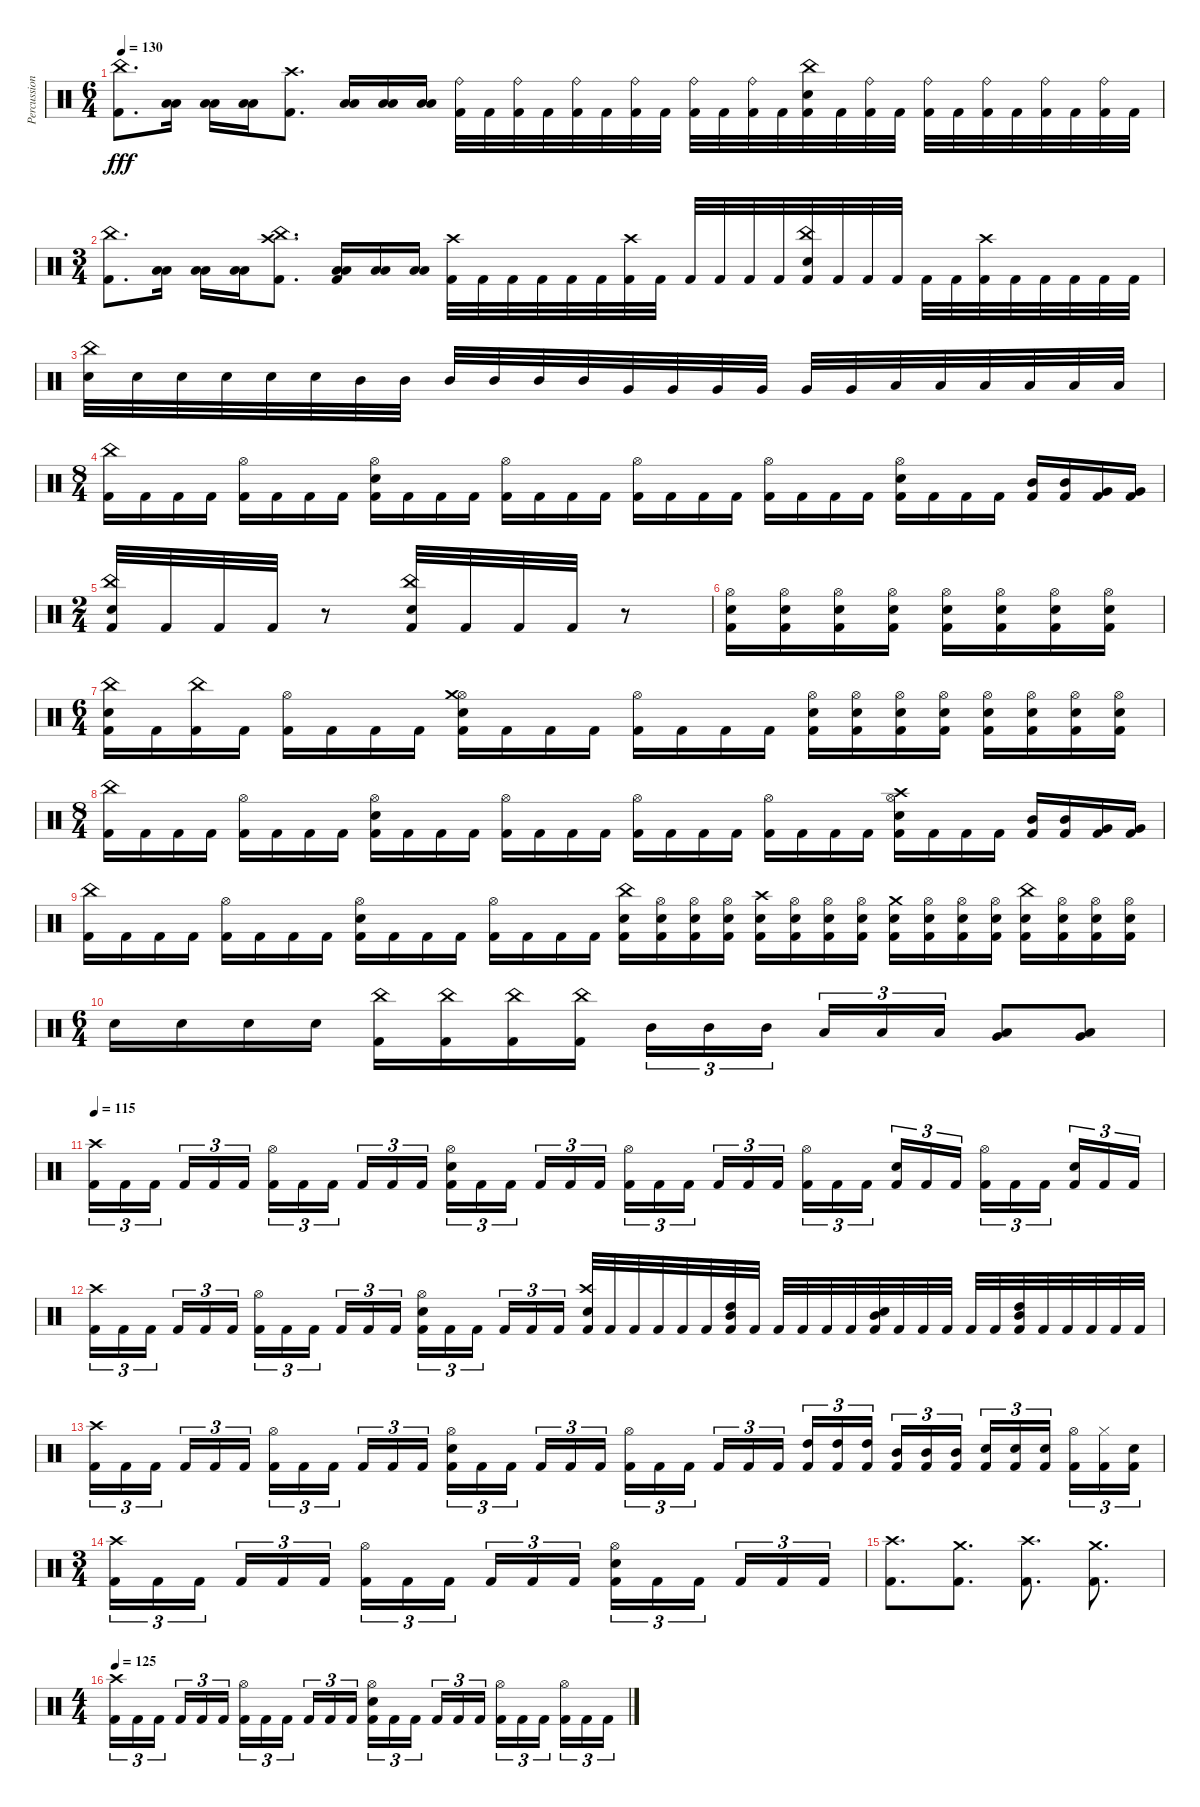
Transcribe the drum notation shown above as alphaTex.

\track ("Percussion" "Percussion") {instrument percussion}
\staff {score}
\articulation defaults
\ts (6 4)
\tempo 130
\clef neutral
\ks c
("Kick (hit) 2" "China (hit)").8{d dy fff} ("Low Tom (hit)" "Low Tom (hit)").16 ("Low Tom (hit)" "Low Tom (hit)").16 ("Low Tom (hit)" "Low Tom (hit)").16 ("Crash high (hit)" "Kick (hit) 2").8{d} ("Low Tom (hit)" "Low Tom (hit)").16 ("Low Floor Tom (hit)" "Low Floor Tom (hit)").16 ("Low Floor Tom (hit)" "Low Floor Tom (hit)").16 ("Kick (hit) 2" "Ride (bell)").32 "Kick (hit) 2".32 ("Kick (hit) 2" "Ride (bell)").32 "Kick (hit) 2".32 ("Kick (hit) 2" "Ride (bell)").32 "Kick (hit) 2".32 ("Kick (hit) 2" "Ride (bell)").32 "Kick (hit) 2".32 ("Kick (hit) 2" "Ride (bell)").32 "Kick (hit) 2".32 ("Kick (hit) 2" "Ride (bell)").32 "Kick (hit) 2".32 ("Kick (hit) 2" "Electric Snare (hit)" "China (hit)").32 "Kick (hit) 2".32 ("Kick (hit) 2" "Ride (bell)").32 "Kick (hit) 2".32 ("Kick (hit) 2" "Ride (bell)").32 "Kick (hit) 2".32 ("Kick (hit) 2" "Ride (bell)").32 "Kick (hit) 2".32 ("Kick (hit) 2" "Ride (bell)").32 "Kick (hit) 2".32 ("Kick (hit) 2" "Ride (bell)").32 "Kick (hit) 2".32 |
\ts (3 4)
("Kick (hit) 2" "China (hit)").8{d} ("Low Tom (hit)" "Low Tom (hit)").16 ("Low Tom (hit)" "Low Tom (hit)").16 ("Low Tom (hit)" "Low Tom (hit)").16 ("Kick (hit) 2" "China (hit)" "Crash high (hit)").8{d} ("Kick (hit) 2" "Low Tom (hit)" "Low Tom (hit)").16 ("Low Tom (hit)" "Low Tom (hit)").16 ("Low Floor Tom (hit)" "Low Floor Tom (hit)").16 ("Kick (hit) 2" "Crash high (hit)").32 "Kick (hit) 2".32 "Kick (hit) 2".32 "Kick (hit) 2".32 "Kick (hit) 2".32 "Kick (hit) 2".32 ("Kick (hit) 2" "Crash high (hit)").32 "Kick (hit) 2".32 "Kick (hit) 2".32 "Kick (hit) 2".32 "Kick (hit) 2".32 "Kick (hit) 2".32 ("Kick (hit) 2" "China (hit)" "Electric Snare (hit)").32 "Kick (hit) 2".32 "Kick (hit) 2".32 "Kick (hit) 2".32 "Kick (hit) 2".32 "Kick (hit) 2".32 ("Kick (hit) 2" "Crash high (hit)").32 "Kick (hit) 2".32 "Kick (hit) 2".32 "Kick (hit) 2".32 "Kick (hit) 2".32 "Kick (hit) 2".32 |
("Electric Snare (hit)" "China (hit)").32 "Electric Snare (hit)".32 "Electric Snare (hit)".32 "Electric Snare (hit)".32 "Electric Snare (hit)".32 "Electric Snare (hit)".32 "Mid Tom (hit)".32 "Mid Tom (hit)".32 "Mid Tom (hit)".32 "Mid Tom (hit)".32 "Mid Tom (hit)".32 "Mid Tom (hit)".32 "Very Low Tom (hit)".32 "Very Low Tom (hit)".32 "Very Low Tom (hit)".32 "Very Low Tom (hit)".32 "Very Low Tom (hit)".32 "Very Low Tom (hit)".32 "Low Floor Tom (hit)".32 "Low Floor Tom (hit)".32 "Low Floor Tom (hit)".32 "Low Floor Tom (hit)".32 "Low Floor Tom (hit)".32 "Low Floor Tom (hit)".32 |
\ts (8 4)
("Kick (hit) 2" "China (hit)").16 "Kick (hit) 2".16 "Kick (hit) 2".16 "Kick (hit) 2".16 ("Kick (hit) 2" "Hi-Hat (open)").16 "Kick (hit) 2".16 "Kick (hit) 2".16 "Kick (hit) 2".16 ("Kick (hit) 2" "Hi-Hat (open)" "Electric Snare (hit)").16 "Kick (hit) 2".16 "Kick (hit) 2".16 "Kick (hit) 2".16 ("Kick (hit) 2" "Hi-Hat (open)").16 "Kick (hit) 2".16 "Kick (hit) 2".16 "Kick (hit) 2".16 ("Kick (hit) 2" "Hi-Hat (open)").16 "Kick (hit) 2".16 "Kick (hit) 2".16 "Kick (hit) 2".16 ("Kick (hit) 2" "Hi-Hat (open)").16 "Kick (hit) 2".16 "Kick (hit) 2".16 "Kick (hit) 2".16 ("Kick (hit) 2" "Hi-Hat (open)" "Electric Snare (hit)").16 "Kick (hit) 2".16 "Kick (hit) 2".16 "Kick (hit) 2".16 ("Kick (hit) 2" "Mid Tom (hit)").16 ("Kick (hit) 2" "Mid Tom (hit)").16 ("Kick (hit) 2" "Very Low Tom (hit)").16 ("Kick (hit) 2" "Very Low Tom (hit)").16 |
\ts (2 4)
("Kick (hit) 2" "Electric Snare (hit)" "China (hit)").32 "Kick (hit) 2".32 "Kick (hit) 2".32 "Kick (hit) 2".32 r.8 ("Kick (hit) 2" "Electric Snare (hit)" "China (hit)").32 "Kick (hit) 2".32 "Kick (hit) 2".32 "Kick (hit) 2".32 r.8 |
("Kick (hit) 2" "Hi-Hat (open)" "Electric Snare (hit)").16 ("Kick (hit) 2" "Hi-Hat (open)" "Electric Snare (hit)").16 ("Kick (hit) 2" "Hi-Hat (open)" "Electric Snare (hit)").16 ("Kick (hit) 2" "Hi-Hat (open)" "Electric Snare (hit)").16 ("Kick (hit) 2" "Hi-Hat (open)" "Electric Snare (hit)").16 ("Kick (hit) 2" "Hi-Hat (open)" "Electric Snare (hit)").16 ("Kick (hit) 2" "Hi-Hat (open)" "Electric Snare (hit)").16 ("Kick (hit) 2" "Hi-Hat (open)" "Electric Snare (hit)").16 |
\ts (6 4)
("Kick (hit) 2" "China (hit)" "Electric Snare (hit)").16 "Kick (hit) 2".16 ("Kick (hit) 2" "China (hit)").16 "Kick (hit) 2".16 ("Kick (hit) 2" "Hi-Hat (open)").16 "Kick (hit) 2".16 "Kick (hit) 2".16 "Kick (hit) 2".16 ("Kick (hit) 2" "Hi-Hat (open)" "Electric Snare (hit)" "Crash medium (hit)").16 "Kick (hit) 2".16 "Kick (hit) 2".16 "Kick (hit) 2".16 ("Kick (hit) 2" "Hi-Hat (open)").16 "Kick (hit) 2".16 "Kick (hit) 2".16 "Kick (hit) 2".16 ("Kick (hit) 2" "Hi-Hat (open)" "Electric Snare (hit)").16 ("Kick (hit) 2" "Hi-Hat (open)" "Electric Snare (hit)").16 ("Kick (hit) 2" "Hi-Hat (open)" "Electric Snare (hit)").16 ("Kick (hit) 2" "Hi-Hat (open)" "Electric Snare (hit)").16 ("Kick (hit) 2" "Hi-Hat (open)" "Electric Snare (hit)").16 ("Kick (hit) 2" "Hi-Hat (open)" "Electric Snare (hit)").16 ("Kick (hit) 2" "Hi-Hat (open)" "Electric Snare (hit)").16 ("Kick (hit) 2" "Hi-Hat (open)" "Electric Snare (hit)").16 |
\ts (8 4)
("Kick (hit) 2" "China (hit)").16 "Kick (hit) 2".16 "Kick (hit) 2".16 "Kick (hit) 2".16 ("Kick (hit) 2" "Hi-Hat (open)").16 "Kick (hit) 2".16 "Kick (hit) 2".16 "Kick (hit) 2".16 ("Kick (hit) 2" "Hi-Hat (open)" "Electric Snare (hit)").16 "Kick (hit) 2".16 "Kick (hit) 2".16 "Kick (hit) 2".16 ("Kick (hit) 2" "Hi-Hat (open)").16 "Kick (hit) 2".16 "Kick (hit) 2".16 "Kick (hit) 2".16 ("Kick (hit) 2" "Hi-Hat (open)").16 "Kick (hit) 2".16 "Kick (hit) 2".16 "Kick (hit) 2".16 ("Kick (hit) 2" "Hi-Hat (open)").16 "Kick (hit) 2".16 "Kick (hit) 2".16 "Kick (hit) 2".16 ("Kick (hit) 2" "Hi-Hat (open)" "Electric Snare (hit)" "Crash high (hit)").16 "Kick (hit) 2".16 "Kick (hit) 2".16 "Kick (hit) 2".16 ("Kick (hit) 2" "Mid Tom (hit)").16 ("Kick (hit) 2" "Mid Tom (hit)").16 ("Kick (hit) 2" "Very Low Tom (hit)").16 ("Kick (hit) 2" "Very Low Tom (hit)").16 |
("Kick (hit) 2" "China (hit)").16 "Kick (hit) 2".16 "Kick (hit) 2".16 "Kick (hit) 2".16 ("Kick (hit) 2" "Hi-Hat (open)").16 "Kick (hit) 2".16 "Kick (hit) 2".16 "Kick (hit) 2".16 ("Kick (hit) 2" "Hi-Hat (open)" "Electric Snare (hit)").16 "Kick (hit) 2".16 "Kick (hit) 2".16 "Kick (hit) 2".16 ("Kick (hit) 2" "Hi-Hat (open)").16 "Kick (hit) 2".16 "Kick (hit) 2".16 "Kick (hit) 2".16 ("Kick (hit) 2" "China (hit)" "Electric Snare (hit)").16 ("Kick (hit) 2" "Hi-Hat (open)" "Electric Snare (hit)").16 ("Kick (hit) 2" "Hi-Hat (open)" "Electric Snare (hit)").16 ("Kick (hit) 2" "Hi-Hat (open)" "Electric Snare (hit)").16 ("Kick (hit) 2" "Crash high (hit)" "Electric Snare (hit)").16 ("Kick (hit) 2" "Hi-Hat (open)" "Electric Snare (hit)").16 ("Kick (hit) 2" "Hi-Hat (open)" "Electric Snare (hit)").16 ("Kick (hit) 2" "Hi-Hat (open)" "Electric Snare (hit)").16 ("Kick (hit) 2" "Crash medium (hit)" "Electric Snare (hit)").16 ("Kick (hit) 2" "Hi-Hat (open)" "Electric Snare (hit)").16 ("Kick (hit) 2" "Hi-Hat (open)" "Electric Snare (hit)").16 ("Kick (hit) 2" "Hi-Hat (open)" "Electric Snare (hit)").16 ("Kick (hit) 2" "China (hit)" "Electric Snare (hit)").16 ("Kick (hit) 2" "Hi-Hat (open)" "Electric Snare (hit)").16 ("Kick (hit) 2" "Hi-Hat (open)" "Electric Snare (hit)").16 ("Kick (hit) 2" "Hi-Hat (open)" "Electric Snare (hit)").16 |
\ts (6 4)
"Electric Snare (hit)".16 "Electric Snare (hit)".16 "Electric Snare (hit)".16 "Electric Snare (hit)".16 ("Kick (hit) 2" "China (hit)").16 ("Kick (hit) 2" "China (hit)").16 ("Kick (hit) 2" "China (hit)").16 ("Kick (hit) 2" "China (hit)").16{beam splitsecondary} "Mid Tom (hit)".16{tu (3 2)} "Mid Tom (hit)".16{tu (3 2)} "Mid Tom (hit)".16{tu (3 2) beam splitsecondary} "Low Tom (hit)".16{tu (3 2)} "Low Tom (hit)".16{tu (3 2)} "Low Tom (hit)".16{tu (3 2)} ("Low Tom (hit)" "Very Low Tom (hit)").8 ("Low Tom (hit)" "Very Low Tom (hit)").8 |
\tempo 115
("Kick (hit) 2" "Crash high (hit)").16{tu (3 2)} "Kick (hit) 2".16{tu (3 2)} "Kick (hit) 2".16{tu (3 2) beam splitsecondary} "Kick (hit) 2".16{tu (3 2)} "Kick (hit) 2".16{tu (3 2)} "Kick (hit) 2".16{tu (3 2) beam splitsecondary} ("Kick (hit) 2" "Hi-Hat (open)").16{tu (3 2)} "Kick (hit) 2".16{tu (3 2)} "Kick (hit) 2".16{tu (3 2) beam splitsecondary} "Kick (hit) 2".16{tu (3 2)} "Kick (hit) 2".16{tu (3 2)} "Kick (hit) 2".16{tu (3 2) beam splitsecondary} ("Kick (hit) 2" "Hi-Hat (open)" "Electric Snare (hit)").16{tu (3 2)} "Kick (hit) 2".16{tu (3 2)} "Kick (hit) 2".16{tu (3 2) beam splitsecondary} "Kick (hit) 2".16{tu (3 2)} "Kick (hit) 2".16{tu (3 2)} "Kick (hit) 2".16{tu (3 2)} ("Kick (hit) 2" "Hi-Hat (open)").16{tu (3 2)} "Kick (hit) 2".16{tu (3 2)} "Kick (hit) 2".16{tu (3 2) beam splitsecondary} "Kick (hit) 2".16{tu (3 2)} "Kick (hit) 2".16{tu (3 2)} "Kick (hit) 2".16{tu (3 2) beam splitsecondary} ("Kick (hit) 2" "Hi-Hat (open)").16{tu (3 2)} "Kick (hit) 2".16{tu (3 2)} "Kick (hit) 2".16{tu (3 2) beam splitsecondary} ("Kick (hit) 2" "Electric Snare (hit)").16{tu (3 2)} "Kick (hit) 2".16{tu (3 2)} "Kick (hit) 2".16{tu (3 2) beam splitsecondary} ("Kick (hit) 2" "Hi-Hat (open)").16{tu (3 2)} "Kick (hit) 2".16{tu (3 2)} "Kick (hit) 2".16{tu (3 2) beam splitsecondary} ("Kick (hit) 2" "Electric Snare (hit)").16{tu (3 2)} "Kick (hit) 2".16{tu (3 2)} "Kick (hit) 2".16{tu (3 2)} |
("Kick (hit) 2" "Crash high (hit)").16{tu (3 2)} "Kick (hit) 2".16{tu (3 2)} "Kick (hit) 2".16{tu (3 2) beam splitsecondary} "Kick (hit) 2".16{tu (3 2)} "Kick (hit) 2".16{tu (3 2)} "Kick (hit) 2".16{tu (3 2) beam splitsecondary} ("Kick (hit) 2" "Hi-Hat (open)").16{tu (3 2)} "Kick (hit) 2".16{tu (3 2)} "Kick (hit) 2".16{tu (3 2) beam splitsecondary} "Kick (hit) 2".16{tu (3 2)} "Kick (hit) 2".16{tu (3 2)} "Kick (hit) 2".16{tu (3 2) beam splitsecondary} ("Kick (hit) 2" "Hi-Hat (open)" "Electric Snare (hit)").16{tu (3 2)} "Kick (hit) 2".16{tu (3 2)} "Kick (hit) 2".16{tu (3 2) beam splitsecondary} "Kick (hit) 2".16{tu (3 2)} "Kick (hit) 2".16{tu (3 2)} "Kick (hit) 2".16{tu (3 2)} ("Kick (hit) 2" "Electric Snare (hit)" "Crash high (hit)").32 "Kick (hit) 2".32 "Kick (hit) 2".32 "Kick (hit) 2".32 "Kick (hit) 2".32 "Kick (hit) 2".32 ("Kick (hit) 2" "Mid Tom (hit)" "High Tom (hit)").32 "Kick (hit) 2".32 "Kick (hit) 2".32 "Kick (hit) 2".32 "Kick (hit) 2".32 "Kick (hit) 2".32 ("Kick (hit) 2" "Electric Snare (hit)" "Mid Tom (hit)").32 "Kick (hit) 2".32 "Kick (hit) 2".32 "Kick (hit) 2".32 "Kick (hit) 2".32 "Kick (hit) 2".32 ("Kick (hit) 2" "Mid Tom (hit)" "High Tom (hit)").32 "Kick (hit) 2".32 "Kick (hit) 2".32 "Kick (hit) 2".32 "Kick (hit) 2".32 "Kick (hit) 2".32 |
("Kick (hit) 2" "Crash high (hit)").16{tu (3 2)} "Kick (hit) 2".16{tu (3 2)} "Kick (hit) 2".16{tu (3 2) beam splitsecondary} "Kick (hit) 2".16{tu (3 2)} "Kick (hit) 2".16{tu (3 2)} "Kick (hit) 2".16{tu (3 2) beam splitsecondary} ("Kick (hit) 2" "Hi-Hat (open)").16{tu (3 2)} "Kick (hit) 2".16{tu (3 2)} "Kick (hit) 2".16{tu (3 2) beam splitsecondary} "Kick (hit) 2".16{tu (3 2)} "Kick (hit) 2".16{tu (3 2)} "Kick (hit) 2".16{tu (3 2) beam splitsecondary} ("Kick (hit) 2" "Hi-Hat (open)" "Electric Snare (hit)").16{tu (3 2)} "Kick (hit) 2".16{tu (3 2)} "Kick (hit) 2".16{tu (3 2) beam splitsecondary} "Kick (hit) 2".16{tu (3 2)} "Kick (hit) 2".16{tu (3 2)} "Kick (hit) 2".16{tu (3 2)} ("Kick (hit) 2" "Hi-Hat (open)").16{tu (3 2)} "Kick (hit) 2".16{tu (3 2)} "Kick (hit) 2".16{tu (3 2) beam splitsecondary} "Kick (hit) 2".16{tu (3 2)} "Kick (hit) 2".16{tu (3 2)} "Kick (hit) 2".16{tu (3 2) beam splitsecondary} ("Kick (hit) 2" "High Tom (hit)").16{tu (3 2)} ("Kick (hit) 2" "High Tom (hit)").16{tu (3 2)} ("Kick (hit) 2" "High Tom (hit)").16{tu (3 2) beam splitsecondary} ("Kick (hit) 2" "Mid Tom (hit)").16{tu (3 2)} ("Kick (hit) 2" "Mid Tom (hit)").16{tu (3 2)} ("Kick (hit) 2" "Mid Tom (hit)").16{tu (3 2) beam splitsecondary} ("Kick (hit) 2" "Electric Snare (hit)").16{tu (3 2)} ("Kick (hit) 2" "Electric Snare (hit)").16{tu (3 2)} ("Kick (hit) 2" "Electric Snare (hit)").16{tu (3 2) beam splitsecondary} ("Kick (hit) 2" "Hi-Hat (open)").16{tu (3 2)} ("Kick (hit) 2" "Hi-Hat (closed)").16{tu (3 2)} ("Kick (hit) 2" "Electric Snare (hit)").16{tu (3 2)} |
\ts (3 4)
("Kick (hit) 2" "Crash high (hit)").16{tu (3 2)} "Kick (hit) 2".16{tu (3 2)} "Kick (hit) 2".16{tu (3 2) beam splitsecondary} "Kick (hit) 2".16{tu (3 2)} "Kick (hit) 2".16{tu (3 2)} "Kick (hit) 2".16{tu (3 2)} ("Kick (hit) 2" "Hi-Hat (open)").16{tu (3 2)} "Kick (hit) 2".16{tu (3 2)} "Kick (hit) 2".16{tu (3 2) beam splitsecondary} "Kick (hit) 2".16{tu (3 2)} "Kick (hit) 2".16{tu (3 2)} "Kick (hit) 2".16{tu (3 2)} ("Kick (hit) 2" "Hi-Hat (open)" "Electric Snare (hit)").16{tu (3 2)} "Kick (hit) 2".16{tu (3 2)} "Kick (hit) 2".16{tu (3 2) beam splitsecondary} "Kick (hit) 2".16{tu (3 2)} "Kick (hit) 2".16{tu (3 2)} "Kick (hit) 2".16{tu (3 2)} |
("Kick (hit) 2" "Crash high (hit)").8{d} ("Kick (hit) 2" "Crash medium (hit)").8{d} ("Kick (hit) 2" "Crash high (hit)").8{d} ("Kick (hit) 2" "Crash medium (hit)").8{d} |
\ts (4 4)
\tempo 125
("Crash high (hit)" "Kick (hit) 2").16{tu (3 2)} "Kick (hit) 2".16{tu (3 2)} "Kick (hit) 2".16{tu (3 2) beam splitsecondary} "Kick (hit) 2".16{tu (3 2)} "Kick (hit) 2".16{tu (3 2)} "Kick (hit) 2".16{tu (3 2)} ("Hi-Hat (open)" "Kick (hit) 2").16{tu (3 2)} "Kick (hit) 2".16{tu (3 2)} "Kick (hit) 2".16{tu (3 2) beam splitsecondary} "Kick (hit) 2".16{tu (3 2)} "Kick (hit) 2".16{tu (3 2)} "Kick (hit) 2".16{tu (3 2)} ("Electric Snare (hit)" "Hi-Hat (open)" "Kick (hit) 2").16{tu (3 2)} "Kick (hit) 2".16{tu (3 2)} "Kick (hit) 2".16{tu (3 2) beam splitsecondary} "Kick (hit) 2".16{tu (3 2)} "Kick (hit) 2".16{tu (3 2)} "Kick (hit) 2".16{tu (3 2)} ("Hi-Hat (open)" "Kick (hit) 2").16{tu (3 2)} "Kick (hit) 2".16{tu (3 2)} "Kick (hit) 2".16{tu (3 2) beam splitsecondary} ("Hi-Hat (open)" "Kick (hit) 2").16{tu (3 2)} "Kick (hit) 2".16{tu (3 2)} "Kick (hit) 2".16{tu (3 2)}
